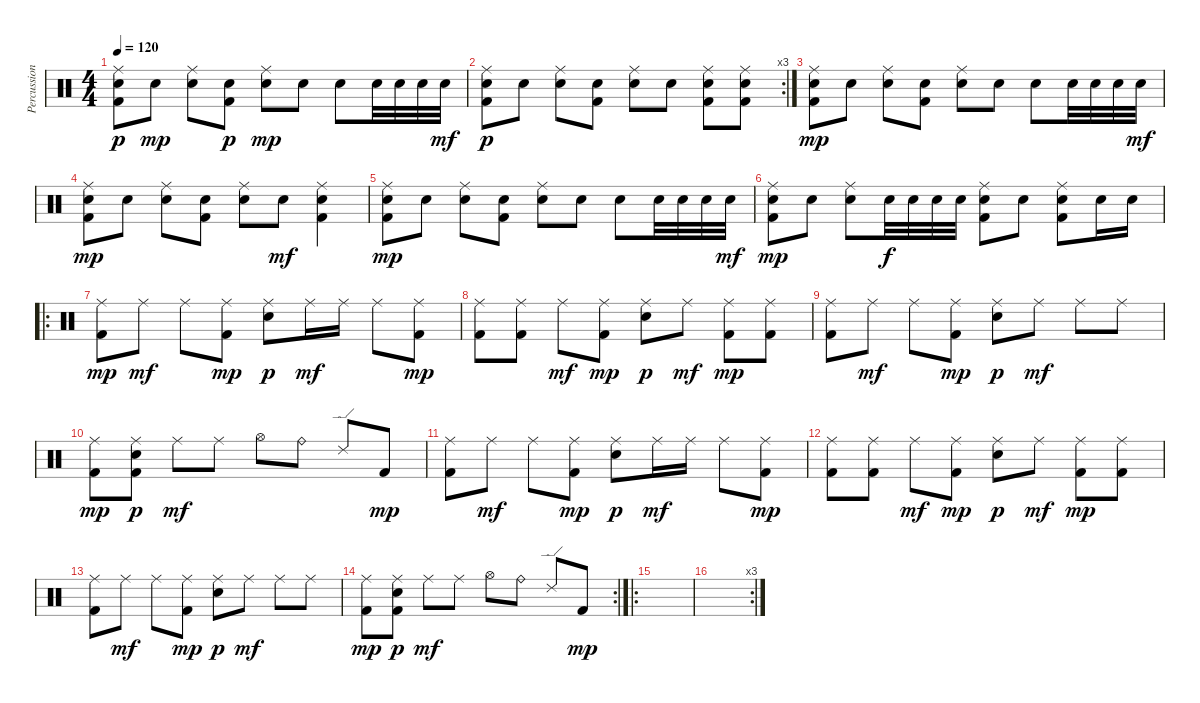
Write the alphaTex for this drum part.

\track ("Percussion" "Percussion") {instrument percussion}
\staff {score}
\articulation defaults
\ts (4 4)
\tempo 120
\clef neutral
\ks c
("Ride (middle)" "Snare (hit) 2" "Kick (hit) 2").8{dy p} "Snare (hit) 2".8{dy mp} ("Ride (middle)" "Snare (hit) 2").8 ("Snare (hit) 2" "Kick (hit) 2").8{dy p} ("Ride (middle)" "Snare (hit) 2").8{dy mp} "Snare (hit) 2".8 "Snare (hit) 2".8 "Snare (hit) 2".32 "Snare (hit) 2".32 "Snare (hit) 2".32 "Snare (hit) 2".32{dy mf} |
\rc 3
("Ride (middle)" "Snare (hit) 2" "Kick (hit) 2").8{dy p} "Snare (hit) 2".8 ("Ride (middle)" "Snare (hit) 2").8 ("Snare (hit) 2" "Kick (hit) 2").8 ("Ride (middle)" "Snare (hit) 2").8 "Snare (hit) 2".8 ("Ride (middle)" "Snare (hit) 2" "Kick (hit) 2").8 ("Ride (middle)" "Snare (hit) 2" "Kick (hit) 2").8 |
("Ride (middle)" "Snare (hit) 2" "Kick (hit) 2").8{dy mp} "Snare (hit) 2".8 ("Ride (middle)" "Snare (hit) 2").8 ("Snare (hit) 2" "Kick (hit) 2").8 ("Ride (middle)" "Snare (hit) 2").8 "Snare (hit) 2".8 "Snare (hit) 2".8 "Snare (hit) 2".32 "Snare (hit) 2".32 "Snare (hit) 2".32 "Snare (hit) 2".32{dy mf} |
("Ride (middle)" "Snare (hit) 2" "Kick (hit) 2").8{dy mp} "Snare (hit) 2".8 ("Ride (middle)" "Snare (hit) 2").8 ("Snare (hit) 2" "Kick (hit) 2").8 ("Ride (middle)" "Snare (hit) 2").8 "Snare (hit) 2".8{dy mf} ("Ride (middle)" "Snare (hit) 2" "Kick (hit) 2").4 |
("Ride (middle)" "Snare (hit) 2" "Kick (hit) 2").8{dy mp} "Snare (hit) 2".8 ("Ride (middle)" "Snare (hit) 2").8 ("Snare (hit) 2" "Kick (hit) 2").8 ("Ride (middle)" "Snare (hit) 2").8 "Snare (hit) 2".8 "Snare (hit) 2".8 "Snare (hit) 2".32 "Snare (hit) 2".32 "Snare (hit) 2".32 "Snare (hit) 2".32{dy mf} |
("Ride (middle)" "Snare (hit) 2" "Kick (hit) 2").8{dy mp} "Snare (hit) 2".8 ("Ride (middle)" "Snare (hit) 2").8 "Snare (hit) 2".32{dy f} "Snare (hit) 2".32 "Snare (hit) 2".32 "Snare (hit) 2".32 ("Ride (middle)" "Snare (hit) 2" "Kick (hit) 2").8 "Snare (hit) 2".8 ("Ride (middle)" "Snare (hit) 2" "Kick (hit) 2").8 "Snare (hit) 2".16 "Snare (hit) 2".16 |
\ro
("Ride (middle)" "Kick (hit) 2").8{dy mp} "Ride (middle)".8{dy mf} "Ride (middle)".8 ("Ride (middle)" "Kick (hit) 2").8{dy mp} ("Ride (middle)" "Snare (hit) 2").8{dy p} "Ride (middle)".16{dy mf} "Ride (middle)".16 "Ride (middle)".8 ("Ride (middle)" "Kick (hit) 2").8{dy mp} |
("Ride (middle)" "Kick (hit) 2").8 ("Ride (middle)" "Kick (hit) 2").8 "Ride (middle)".8{dy mf} ("Ride (middle)" "Kick (hit) 2").8{dy mp} ("Ride (middle)" "Snare (hit) 2").8{dy p} "Ride (middle)".8{dy mf} ("Ride (middle)" "Kick (hit) 2").8{dy mp} ("Ride (middle)" "Kick (hit) 2").8 |
("Ride (middle)" "Kick (hit) 2").8 "Ride (middle)".8{dy mf} "Ride (middle)".8 ("Ride (middle)" "Kick (hit) 2").8{dy mp} ("Ride (middle)" "Snare (hit) 2").8{dy p} "Ride (middle)".8{dy mf} "Ride (middle)".8 "Ride (middle)".8 |
("Ride (middle)" "Kick (hit) 2").8{dy mp} ("Ride (middle)" "Kick (hit) 2" "Snare (hit) 2").8{dy p} "Ride (middle)".8{dy mf} "Ride (middle)".8 "Hi-Hat (open)".8 "Ride (bell)".8 "Ride (edge) 2".8 "Kick (hit) 2".8{dy mp} |
("Ride (middle)" "Kick (hit) 2").8 "Ride (middle)".8{dy mf} "Ride (middle)".8 ("Ride (middle)" "Kick (hit) 2").8{dy mp} ("Ride (middle)" "Snare (hit) 2").8{dy p} "Ride (middle)".16{dy mf} "Ride (middle)".16 "Ride (middle)".8 ("Ride (middle)" "Kick (hit) 2").8{dy mp} |
("Ride (middle)" "Kick (hit) 2").8 ("Ride (middle)" "Kick (hit) 2").8 "Ride (middle)".8{dy mf} ("Ride (middle)" "Kick (hit) 2").8{dy mp} ("Ride (middle)" "Snare (hit) 2").8{dy p} "Ride (middle)".8{dy mf} ("Ride (middle)" "Kick (hit) 2").8{dy mp} ("Ride (middle)" "Kick (hit) 2").8 |
("Ride (middle)" "Kick (hit) 2").8 "Ride (middle)".8{dy mf} "Ride (middle)".8 ("Ride (middle)" "Kick (hit) 2").8{dy mp} ("Ride (middle)" "Snare (hit) 2").8{dy p} "Ride (middle)".8{dy mf} "Ride (middle)".8 "Ride (middle)".8 |
\rc 2
("Ride (middle)" "Kick (hit) 2").8{dy mp} ("Ride (middle)" "Kick (hit) 2" "Snare (hit) 2").8{dy p} "Ride (middle)".8{dy mf} "Ride (middle)".8 "Hi-Hat (open)".8 "Ride (bell)".8 "Ride (edge) 2".8 "Kick (hit) 2".8{dy mp} |
\ro
|
\rc 3
